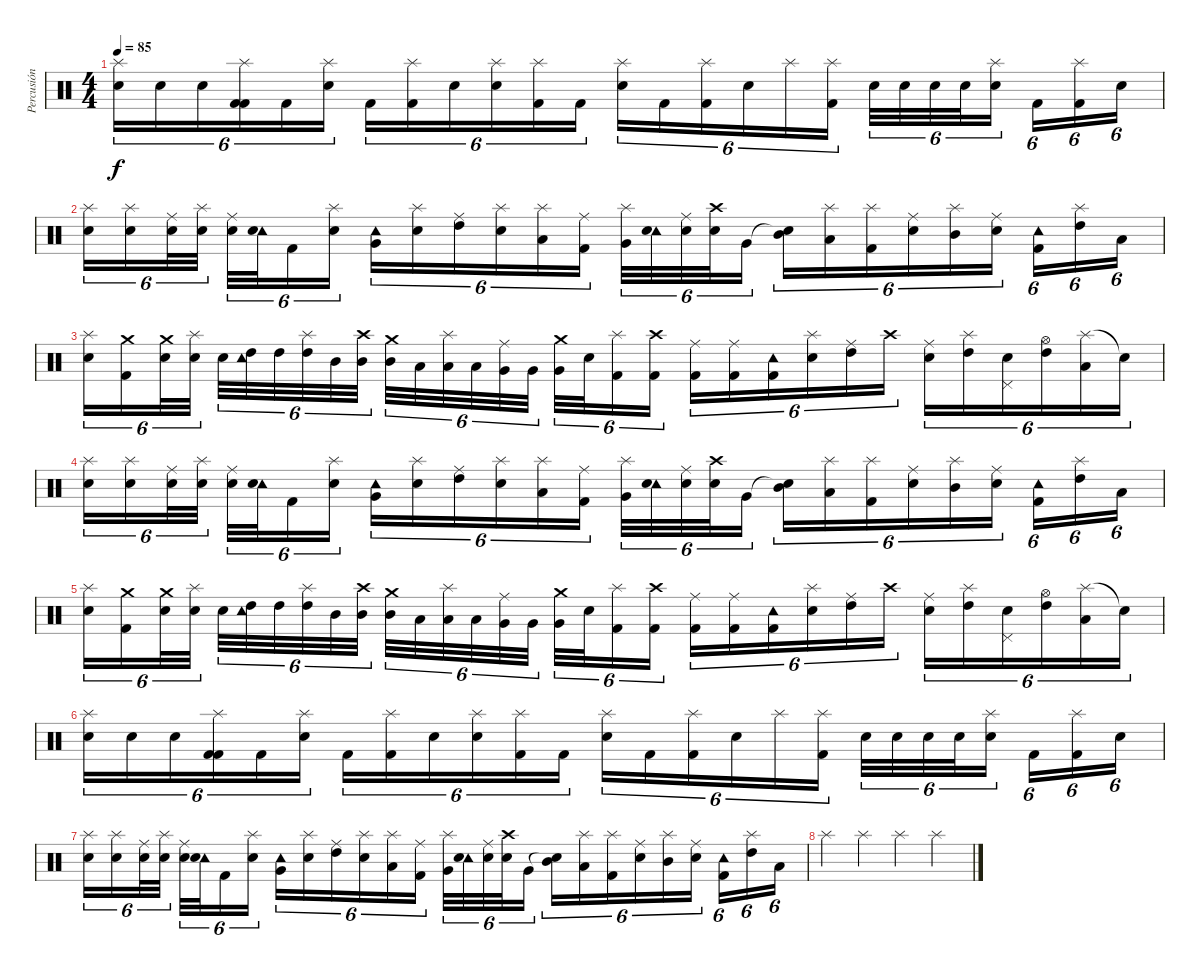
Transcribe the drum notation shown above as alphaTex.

\track ("Percusión" "Percusión") {instrument percussion}
\staff {score}
\articulation defaults
\ts (4 4)
\tempo 85
\clef neutral
\ks c
("Splash (hit)" "Electric Snare (hit)").16{tu (6 4) dy f} "Electric Snare (hit)".16{tu (6 4)} "Electric Snare (hit)".16{tu (6 4)} ("Splash (hit)" "Kick (hit) 2" "Kick (hit) 2").16{tu (6 4)} "Kick (hit) 2".16{tu (6 4)} ("Splash (hit)" "Electric Snare (hit)").16{tu (6 4)} "Kick (hit) 2".16{tu (6 4)} ("Splash (hit)" "Kick (hit) 2").16{tu (6 4)} "Electric Snare (hit)".16{tu (6 4)} ("Splash (hit)" "Electric Snare (hit)").16{tu (6 4)} ("Splash (hit)" "Kick (hit) 2").16{tu (6 4)} "Kick (hit) 2".16{tu (6 4)} ("Splash (hit)" "Electric Snare (hit)").16{tu (6 4)} "Kick (hit) 2".16{tu (6 4)} ("Splash (hit)" "Kick (hit) 2").16{tu (6 4)} "Electric Snare (hit)".16{tu (6 4)} "Splash (hit)".16{tu (6 4)} ("Splash (hit)" "Kick (hit) 2").16{tu (6 4)} "Electric Snare (hit)".32{tu (6 4)} "Electric Snare (hit)".32{tu (6 4)} "Electric Snare (hit)".32{tu (6 4)} "Electric Snare (hit)".32{tu (6 4)} ("Splash (hit)" "Electric Snare (hit)").16{tu (6 4)} "Kick (hit) 2".16{tu (6 4)} ("Splash (hit)" "Kick (hit) 2").16{tu (6 4)} "Electric Snare (hit)".16{tu (6 4)} |
("Splash (hit)" "Electric Snare (hit)").16{tu (6 4)} ("Splash (hit)" "Electric Snare (hit)").16{tu (6 4)} ("Ride (middle)" "Electric Snare (hit)").32{tu (6 4)} ("Splash (hit)" "Electric Snare (hit)").32{tu (6 4)} ("Ride (middle)" "Electric Snare (hit)").32{tu (6 4)} ("Tambourine (hit)" "Electric Snare (hit)").32{tu (6 4)} "Kick (hit) 2".16{tu (6 4)} ("Splash (hit)" "Electric Snare (hit)").16{tu (6 4)} ("Tambourine (hit)" "Very Low Tom (hit)").16{tu (6 4)} ("Splash (hit)" "Electric Snare (hit)").16{tu (6 4)} ("Ride (middle)" "High Tom (hit)").16{tu (6 4)} ("Splash (hit)" "Electric Snare (hit)").16{tu (6 4)} ("Splash (hit)" "Low Tom (hit)").16{tu (6 4)} ("Ride (middle)" "Kick (hit) 2").16{tu (6 4)} ("Splash (hit)" "Very Low Tom (hit)").32{tu (6 4)} ("Tambourine (hit)" "Electric Snare (hit)").32{tu (6 4)} ("Ride (middle)" "Electric Snare (hit)").32{tu (6 4)} ("Crash high (hit)" "Electric Snare (hit)").32{tu (6 4)} "Very Low Tom (hit)".16{tu (6 4)} ("Snare (hit)"{t} "Mid Tom (hit)").16{tu (6 4)} ("Splash (hit)" "Low Tom (hit)").16{tu (6 4)} ("Splash (hit)" "Kick (hit) 2").16{tu (6 4)} ("Ride (middle)" "Electric Snare (hit)").16{tu (6 4)} ("Splash (hit)" "Mid Tom (hit)").16{tu (6 4)} ("Ride (middle)" "Electric Snare (hit)").16{tu (6 4)} ("Tambourine (hit)" "Kick (hit) 2").16{tu (6 4)} ("Splash (hit)" "High Tom (hit)").16{tu (6 4)} "Low Tom (hit)".16{tu (6 4)} |
("Splash (hit)" "Electric Snare (hit)").16{tu (6 4)} ("Crash medium (hit)" "Kick (hit) 2").16{tu (6 4)} ("Crash medium (hit)" "Electric Snare (hit)").32{tu (6 4)} ("Splash (hit)" "Electric Snare (hit)").32{tu (6 4)} "Electric Snare (hit)".32{tu (6 4)} ("Tambourine (hit)" "High Tom (hit)").32{tu (6 4)} "High Tom (hit)".32{tu (6 4)} ("Splash (hit)" "High Tom (hit)").32{tu (6 4)} "Mid Tom (hit)".32{tu (6 4)} ("Crash high (hit)" "Mid Tom (hit)").32{tu (6 4)} ("Crash medium (hit)" "Mid Tom (hit)").32{tu (6 4)} "Low Tom (hit)".32{tu (6 4)} ("Splash (hit)" "Low Tom (hit)").32{tu (6 4)} "Low Tom (hit)".32{tu (6 4)} ("Ride (middle)" "Very Low Tom (hit)").32{tu (6 4)} "Very Low Tom (hit)".32{tu (6 4)} ("Crash medium (hit)" "Very Low Tom (hit)").32{tu (6 4)} "Electric Snare (hit)".32{tu (6 4)} ("Splash (hit)" "Kick (hit) 2").16{tu (6 4)} ("Crash high (hit)" "Kick (hit) 2").16{tu (6 4)} ("Ride (middle)" "Kick (hit) 2").16{tu (6 4)} ("Ride (middle)" "Kick (hit) 2").16{tu (6 4)} ("Tambourine (hit)" "Kick (hit) 2").16{tu (6 4)} ("Splash (hit)" "Electric Snare (hit)").16{tu (6 4)} ("Ride (middle)" "High Tom (hit)").16{tu (6 4)} "Crash high (hit)".16{tu (6 4)} ("Ride (middle)" "Electric Snare (hit)").16{tu (6 4)} ("Splash (hit)" "High Tom (hit)").16{tu (6 4)} ("Pedal Hi-Hat (hit)" "Electric Snare (hit)").16{tu (6 4)} ("Hi-Hat (open)" "High Tom (hit)").16{tu (6 4)} ("Splash (hit)" "Low Tom (hit)").16{tu (6 4)} "Snare (hit)"{t}.16{tu (6 4)} |
("Splash (hit)" "Electric Snare (hit)").16{tu (6 4)} ("Splash (hit)" "Electric Snare (hit)").16{tu (6 4)} ("Ride (middle)" "Electric Snare (hit)").32{tu (6 4)} ("Splash (hit)" "Electric Snare (hit)").32{tu (6 4)} ("Ride (middle)" "Electric Snare (hit)").32{tu (6 4)} ("Tambourine (hit)" "Electric Snare (hit)").32{tu (6 4)} "Kick (hit) 2".16{tu (6 4)} ("Splash (hit)" "Electric Snare (hit)").16{tu (6 4)} ("Tambourine (hit)" "Very Low Tom (hit)").16{tu (6 4)} ("Splash (hit)" "Electric Snare (hit)").16{tu (6 4)} ("Ride (middle)" "High Tom (hit)").16{tu (6 4)} ("Splash (hit)" "Electric Snare (hit)").16{tu (6 4)} ("Splash (hit)" "Low Tom (hit)").16{tu (6 4)} ("Ride (middle)" "Kick (hit) 2").16{tu (6 4)} ("Splash (hit)" "Very Low Tom (hit)").32{tu (6 4)} ("Tambourine (hit)" "Electric Snare (hit)").32{tu (6 4)} ("Ride (middle)" "Electric Snare (hit)").32{tu (6 4)} ("Crash high (hit)" "Electric Snare (hit)").32{tu (6 4)} "Very Low Tom (hit)".16{tu (6 4)} ("Snare (hit)"{t} "Mid Tom (hit)").16{tu (6 4)} ("Splash (hit)" "Low Tom (hit)").16{tu (6 4)} ("Splash (hit)" "Kick (hit) 2").16{tu (6 4)} ("Ride (middle)" "Electric Snare (hit)").16{tu (6 4)} ("Splash (hit)" "Mid Tom (hit)").16{tu (6 4)} ("Ride (middle)" "Electric Snare (hit)").16{tu (6 4)} ("Tambourine (hit)" "Kick (hit) 2").16{tu (6 4)} ("Splash (hit)" "High Tom (hit)").16{tu (6 4)} "Low Tom (hit)".16{tu (6 4)} |
("Splash (hit)" "Electric Snare (hit)").16{tu (6 4)} ("Crash medium (hit)" "Kick (hit) 2").16{tu (6 4)} ("Crash medium (hit)" "Electric Snare (hit)").32{tu (6 4)} ("Splash (hit)" "Electric Snare (hit)").32{tu (6 4)} "Electric Snare (hit)".32{tu (6 4)} ("Tambourine (hit)" "High Tom (hit)").32{tu (6 4)} "High Tom (hit)".32{tu (6 4)} ("Splash (hit)" "High Tom (hit)").32{tu (6 4)} "Mid Tom (hit)".32{tu (6 4)} ("Crash high (hit)" "Mid Tom (hit)").32{tu (6 4)} ("Crash medium (hit)" "Mid Tom (hit)").32{tu (6 4)} "Low Tom (hit)".32{tu (6 4)} ("Splash (hit)" "Low Tom (hit)").32{tu (6 4)} "Low Tom (hit)".32{tu (6 4)} ("Ride (middle)" "Very Low Tom (hit)").32{tu (6 4)} "Very Low Tom (hit)".32{tu (6 4)} ("Crash medium (hit)" "Very Low Tom (hit)").32{tu (6 4)} "Electric Snare (hit)".32{tu (6 4)} ("Splash (hit)" "Kick (hit) 2").16{tu (6 4)} ("Crash high (hit)" "Kick (hit) 2").16{tu (6 4)} ("Ride (middle)" "Kick (hit) 2").16{tu (6 4)} ("Ride (middle)" "Kick (hit) 2").16{tu (6 4)} ("Tambourine (hit)" "Kick (hit) 2").16{tu (6 4)} ("Splash (hit)" "Electric Snare (hit)").16{tu (6 4)} ("Ride (middle)" "High Tom (hit)").16{tu (6 4)} "Crash high (hit)".16{tu (6 4)} ("Ride (middle)" "Electric Snare (hit)").16{tu (6 4)} ("Splash (hit)" "High Tom (hit)").16{tu (6 4)} ("Pedal Hi-Hat (hit)" "Electric Snare (hit)").16{tu (6 4)} ("Hi-Hat (open)" "High Tom (hit)").16{tu (6 4)} ("Splash (hit)" "Low Tom (hit)").16{tu (6 4)} "Snare (hit)"{t}.16{tu (6 4)} |
("Splash (hit)" "Electric Snare (hit)").16{tu (6 4)} "Electric Snare (hit)".16{tu (6 4)} "Electric Snare (hit)".16{tu (6 4)} ("Splash (hit)" "Kick (hit) 2" "Kick (hit) 2").16{tu (6 4)} "Kick (hit) 2".16{tu (6 4)} ("Splash (hit)" "Electric Snare (hit)").16{tu (6 4)} "Kick (hit) 2".16{tu (6 4)} ("Splash (hit)" "Kick (hit) 2").16{tu (6 4)} "Electric Snare (hit)".16{tu (6 4)} ("Splash (hit)" "Electric Snare (hit)").16{tu (6 4)} ("Splash (hit)" "Kick (hit) 2").16{tu (6 4)} "Kick (hit) 2".16{tu (6 4)} ("Splash (hit)" "Electric Snare (hit)").16{tu (6 4)} "Kick (hit) 2".16{tu (6 4)} ("Splash (hit)" "Kick (hit) 2").16{tu (6 4)} "Electric Snare (hit)".16{tu (6 4)} "Splash (hit)".16{tu (6 4)} ("Splash (hit)" "Kick (hit) 2").16{tu (6 4)} "Electric Snare (hit)".32{tu (6 4)} "Electric Snare (hit)".32{tu (6 4)} "Electric Snare (hit)".32{tu (6 4)} "Electric Snare (hit)".32{tu (6 4)} ("Splash (hit)" "Electric Snare (hit)").16{tu (6 4)} "Kick (hit) 2".16{tu (6 4)} ("Splash (hit)" "Kick (hit) 2").16{tu (6 4)} "Electric Snare (hit)".16{tu (6 4)} |
("Splash (hit)" "Electric Snare (hit)").16{tu (6 4)} ("Splash (hit)" "Electric Snare (hit)").16{tu (6 4)} ("Ride (middle)" "Electric Snare (hit)").32{tu (6 4)} ("Splash (hit)" "Electric Snare (hit)").32{tu (6 4)} ("Ride (middle)" "Electric Snare (hit)").32{tu (6 4)} ("Tambourine (hit)" "Electric Snare (hit)").32{tu (6 4)} "Kick (hit) 2".16{tu (6 4)} ("Splash (hit)" "Electric Snare (hit)").16{tu (6 4)} ("Tambourine (hit)" "Very Low Tom (hit)").16{tu (6 4)} ("Splash (hit)" "Electric Snare (hit)").16{tu (6 4)} ("Ride (middle)" "High Tom (hit)").16{tu (6 4)} ("Splash (hit)" "Electric Snare (hit)").16{tu (6 4)} ("Splash (hit)" "Low Tom (hit)").16{tu (6 4)} ("Ride (middle)" "Kick (hit) 2").16{tu (6 4)} ("Splash (hit)" "Very Low Tom (hit)").32{tu (6 4)} ("Tambourine (hit)" "Electric Snare (hit)").32{tu (6 4)} ("Ride (middle)" "Electric Snare (hit)").32{tu (6 4)} ("Crash high (hit)" "Electric Snare (hit)").32{tu (6 4)} "Very Low Tom (hit)".16{tu (6 4)} ("Snare (hit)"{t} "Mid Tom (hit)").16{tu (6 4)} ("Splash (hit)" "Low Tom (hit)").16{tu (6 4)} ("Splash (hit)" "Kick (hit) 2").16{tu (6 4)} ("Ride (middle)" "Electric Snare (hit)").16{tu (6 4)} ("Splash (hit)" "Mid Tom (hit)").16{tu (6 4)} ("Ride (middle)" "Electric Snare (hit)").16{tu (6 4)} ("Tambourine (hit)" "Kick (hit) 2").16{tu (6 4)} ("Splash (hit)" "High Tom (hit)").16{tu (6 4)} "Low Tom (hit)".16{tu (6 4)} |
"Splash (hit)".4 "Splash (hit)".4 "Splash (hit)".4 "Splash (hit)".4
